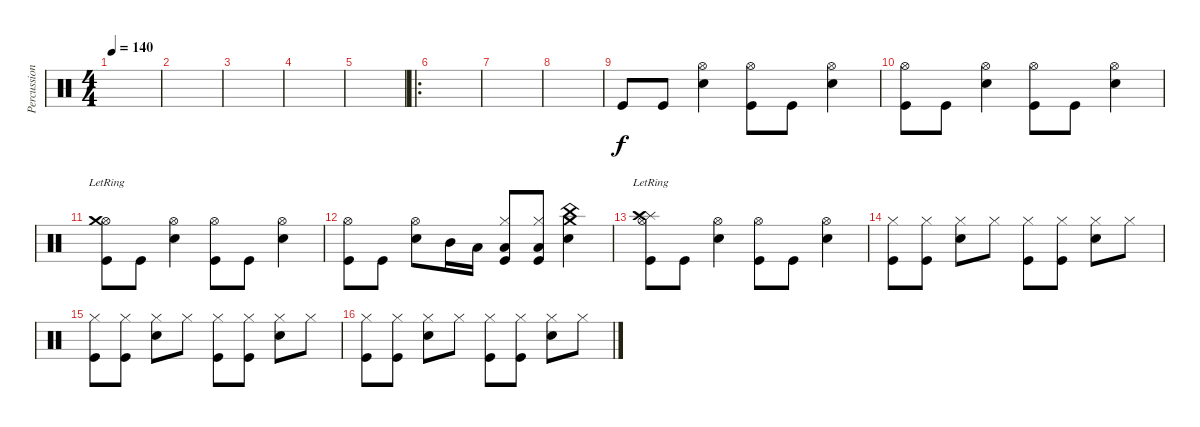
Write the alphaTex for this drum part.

\track ("Percussion" "Percussion") {instrument percussion}
\staff {score}
\articulation defaults
\ts (4 4)
\tempo 140
\clef neutral
\ks c
|
|
|
|
|
\ro
|
|
|
"Kick (hit)".8 "Kick (hit)".8 ("Hi-Hat (open)" "Snare (hit) 2").4 ("Hi-Hat (open)" "Kick (hit)").8 "Kick (hit)".8 ("Hi-Hat (open)" "Snare (hit) 2").4 |
("Hi-Hat (open)" "Kick (hit)").8 "Kick (hit)".8 ("Hi-Hat (open)" "Snare (hit) 2").4 ("Hi-Hat (open)" "Kick (hit)").8 "Kick (hit)".8 ("Hi-Hat (open)" "Snare (hit) 2").4 |
("Hi-Hat (open)" "Crash medium (hit)"{lr} "Kick (hit)").8 "Kick (hit)".8 ("Hi-Hat (open)" "Snare (hit) 2").4 ("Hi-Hat (open)" "Kick (hit)").8 "Kick (hit)".8 ("Hi-Hat (open)" "Snare (hit) 2").4 |
("Hi-Hat (open)" "Kick (hit)").8 "Kick (hit)".8 ("Hi-Hat (open)" "Snare (hit) 2").8 "Mid Tom (hit)".16 "Low Tom (hit)".16 ("Hi-Hat (closed)" "Low Floor Tom (hit)" "Kick (hit)").8 ("Hi-Hat (closed)" "Low Floor Tom (hit)" "Kick (hit)").8 ("Crash medium (hit)" "China (hit)" "Snare (hit) 2").4 |
("Splash (hit)" "Hi-Hat (open)" "Crash high (hit)"{lr} "Kick (hit)").8 "Kick (hit)".8 ("Hi-Hat (open)" "Snare (hit) 2").4 ("Hi-Hat (open)" "Kick (hit)").8 "Kick (hit)".8 ("Hi-Hat (open)" "Snare (hit) 2").4 |
("Hi-Hat (closed)" "Kick (hit)").8 ("Hi-Hat (closed)" "Kick (hit)").8 ("Hi-Hat (closed)" "Snare (hit) 2").8 "Hi-Hat (closed)".8 ("Hi-Hat (closed)" "Kick (hit)").8 ("Hi-Hat (closed)" "Kick (hit)").8 ("Hi-Hat (closed)" "Snare (hit) 2").8 "Hi-Hat (closed)".8 |
("Hi-Hat (closed)" "Kick (hit)").8 ("Hi-Hat (closed)" "Kick (hit)").8 ("Hi-Hat (closed)" "Snare (hit) 2").8 "Hi-Hat (closed)".8 ("Hi-Hat (closed)" "Kick (hit)").8 ("Hi-Hat (closed)" "Kick (hit)").8 ("Hi-Hat (closed)" "Snare (hit) 2").8 "Hi-Hat (closed)".8 |
("Hi-Hat (closed)" "Kick (hit)").8 ("Hi-Hat (closed)" "Kick (hit)").8 ("Hi-Hat (closed)" "Snare (hit) 2").8 "Hi-Hat (closed)".8 ("Hi-Hat (closed)" "Kick (hit)").8 ("Hi-Hat (closed)" "Kick (hit)").8 ("Hi-Hat (closed)" "Snare (hit) 2").8 "Hi-Hat (closed)".8
